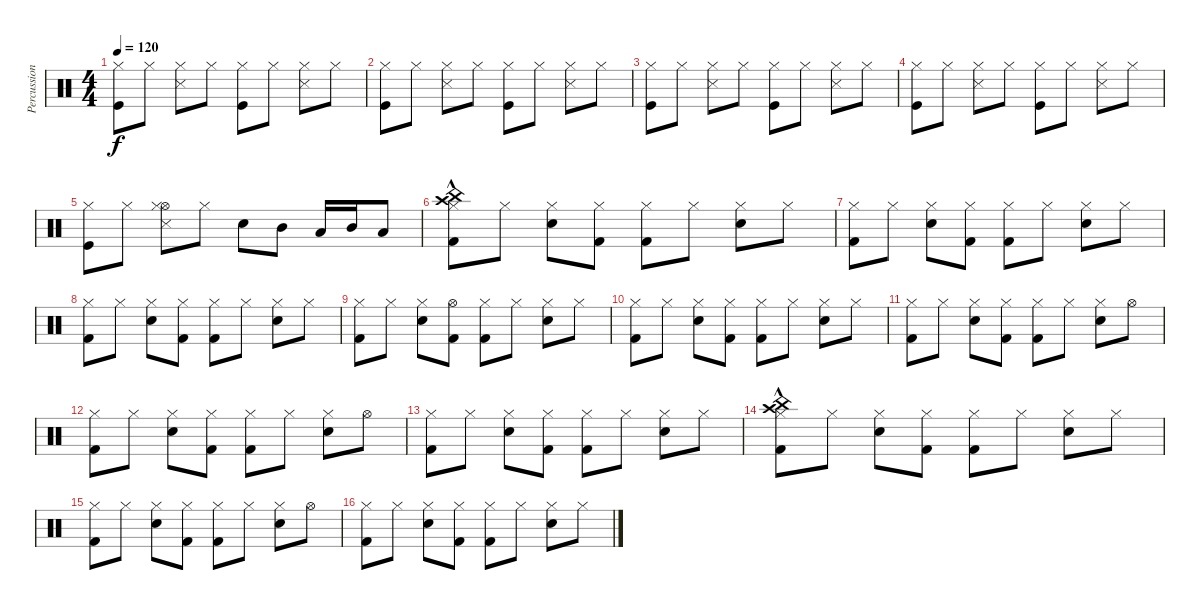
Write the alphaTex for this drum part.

\track ("Percussion" "Percussion") {instrument percussion}
\staff {score}
\articulation defaults
\ts (4 4)
\tempo 120
\clef neutral
\ks c
("Kick (hit)" "Hi-Hat (closed)").8{dy f} "Hi-Hat (closed)".8 ("Snare (side stick) 3" "Hi-Hat (closed)").8 "Hi-Hat (closed)".8 ("Kick (hit)" "Hi-Hat (closed)").8 "Hi-Hat (closed)".8 ("Snare (side stick) 3" "Hi-Hat (closed)").8 "Hi-Hat (closed)".8 |
("Kick (hit)" "Hi-Hat (closed)").8 "Hi-Hat (closed)".8 ("Snare (side stick) 3" "Hi-Hat (closed)").8 "Hi-Hat (closed)".8 ("Kick (hit)" "Hi-Hat (closed)").8 "Hi-Hat (closed)".8 ("Snare (side stick) 3" "Hi-Hat (closed)").8 "Hi-Hat (closed)".8 |
("Kick (hit)" "Hi-Hat (closed)").8 "Hi-Hat (closed)".8 ("Snare (side stick) 3" "Hi-Hat (closed)").8 "Hi-Hat (closed)".8 ("Kick (hit)" "Hi-Hat (closed)").8 "Hi-Hat (closed)".8 ("Snare (side stick) 3" "Hi-Hat (closed)").8 "Hi-Hat (closed)".8 |
("Kick (hit)" "Hi-Hat (closed)").8 "Hi-Hat (closed)".8 ("Snare (side stick) 3" "Hi-Hat (closed)").8 "Hi-Hat (closed)".8 ("Kick (hit)" "Hi-Hat (closed)").8 "Hi-Hat (closed)".8 ("Snare (side stick) 3" "Hi-Hat (closed)").8 "Hi-Hat (closed)".8 |
("Kick (hit)" "Hi-Hat (closed)").8 "Hi-Hat (closed)".8 ("Hi-Hat (open)" "Snare (side stick) 3" "Hi-Hat (closed)").8 "Hi-Hat (closed)".8 "Snare (hit) 2".8 "Mid Tom (hit)".8 "Low Tom (hit)".16 "Mid Tom (hit)".16 "Low Tom (hit)".8 |
("Crash high (hit)" "Hi-Hat (closed)"{hac} "Kick (hit) 2"{hac} "China (hit)"{hac}).8 "Hi-Hat (closed)".8 ("Snare (hit) 2" "Hi-Hat (closed)").8 ("Kick (hit) 2" "Hi-Hat (closed)").8 ("Kick (hit) 2" "Hi-Hat (closed)").8 "Hi-Hat (closed)".8 ("Hi-Hat (closed)" "Snare (hit) 2").8 "Hi-Hat (closed)".8 |
("Hi-Hat (closed)" "Kick (hit) 2").8 "Hi-Hat (closed)".8 ("Snare (hit) 2" "Hi-Hat (closed)").8 ("Kick (hit) 2" "Hi-Hat (closed)").8 ("Kick (hit) 2" "Hi-Hat (closed)").8 "Hi-Hat (closed)".8 ("Hi-Hat (closed)" "Snare (hit) 2").8 "Hi-Hat (closed)".8 |
("Hi-Hat (closed)" "Kick (hit) 2").8 "Hi-Hat (closed)".8 ("Snare (hit) 2" "Hi-Hat (closed)").8 ("Kick (hit) 2" "Hi-Hat (closed)").8 ("Kick (hit) 2" "Hi-Hat (closed)").8 "Hi-Hat (closed)".8 ("Hi-Hat (closed)" "Snare (hit) 2").8 "Hi-Hat (closed)".8 |
("Hi-Hat (closed)" "Kick (hit) 2").8 "Hi-Hat (closed)".8 ("Snare (hit) 2" "Hi-Hat (closed)").8 ("Hi-Hat (open)" "Kick (hit) 2").8 ("Kick (hit) 2" "Hi-Hat (closed)").8 "Hi-Hat (closed)".8 ("Hi-Hat (closed)" "Snare (hit) 2").8 "Hi-Hat (closed)".8 |
("Hi-Hat (closed)" "Kick (hit) 2").8 "Hi-Hat (closed)".8 ("Snare (hit) 2" "Hi-Hat (closed)").8 ("Kick (hit) 2" "Hi-Hat (closed)").8 ("Kick (hit) 2" "Hi-Hat (closed)").8 "Hi-Hat (closed)".8 ("Hi-Hat (closed)" "Snare (hit) 2").8 "Hi-Hat (closed)".8 |
("Hi-Hat (closed)" "Kick (hit) 2").8 "Hi-Hat (closed)".8 ("Snare (hit) 2" "Hi-Hat (closed)").8 ("Kick (hit) 2" "Hi-Hat (closed)").8 ("Kick (hit) 2" "Hi-Hat (closed)").8 "Hi-Hat (closed)".8 ("Hi-Hat (closed)" "Snare (hit) 2").8 "Hi-Hat (open)".8 |
("Hi-Hat (closed)" "Kick (hit) 2").8 "Hi-Hat (closed)".8 ("Snare (hit) 2" "Hi-Hat (closed)").8 ("Kick (hit) 2" "Hi-Hat (closed)").8 ("Kick (hit) 2" "Hi-Hat (closed)").8 "Hi-Hat (closed)".8 ("Hi-Hat (closed)" "Snare (hit) 2").8 "Hi-Hat (open)".8 |
("Hi-Hat (closed)" "Kick (hit) 2").8 "Hi-Hat (closed)".8 ("Snare (hit) 2" "Hi-Hat (closed)").8 ("Kick (hit) 2" "Hi-Hat (closed)").8 ("Kick (hit) 2" "Hi-Hat (closed)").8 "Hi-Hat (closed)".8 ("Hi-Hat (closed)" "Snare (hit) 2").8 "Hi-Hat (closed)".8 |
("Crash high (hit)" "Hi-Hat (closed)"{hac} "Kick (hit) 2"{hac} "China (hit)"{hac}).8 "Hi-Hat (closed)".8 ("Snare (hit) 2" "Hi-Hat (closed)").8 ("Kick (hit) 2" "Hi-Hat (closed)").8 ("Kick (hit) 2" "Hi-Hat (closed)").8 "Hi-Hat (closed)".8 ("Hi-Hat (closed)" "Snare (hit) 2").8 "Hi-Hat (closed)".8 |
("Hi-Hat (closed)" "Kick (hit) 2").8 "Hi-Hat (closed)".8 ("Snare (hit) 2" "Hi-Hat (closed)").8 ("Kick (hit) 2" "Hi-Hat (closed)").8 ("Kick (hit) 2" "Hi-Hat (closed)").8 "Hi-Hat (closed)".8 ("Hi-Hat (closed)" "Snare (hit) 2").8 "Hi-Hat (open)".8 |
("Hi-Hat (closed)" "Kick (hit) 2").8 "Hi-Hat (closed)".8 ("Snare (hit) 2" "Hi-Hat (closed)").8 ("Kick (hit) 2" "Hi-Hat (closed)").8 ("Kick (hit) 2" "Hi-Hat (closed)").8 "Hi-Hat (closed)".8 ("Hi-Hat (closed)" "Snare (hit) 2").8 "Hi-Hat (closed)".8
